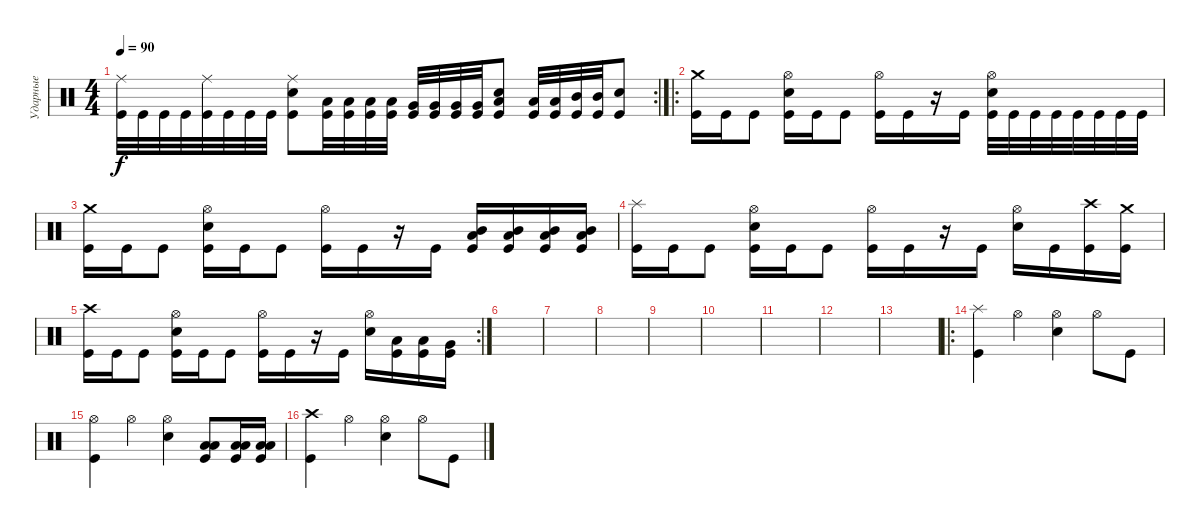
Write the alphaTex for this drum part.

\track ("Ударные" "Ударные") {instrument percussion}
\staff {score}
\articulation defaults
\rc 2
\ts (4 4)
\tempo 90
\clef neutral
\ks c
("Ride (middle)" "Kick (hit)").32{dy f} "Kick (hit)".32 "Kick (hit)".32 "Kick (hit)".32 ("Ride (middle)" "Kick (hit)").32 "Kick (hit)".32 "Kick (hit)".32 "Kick (hit)".32 ("Ride (middle)" "Snare (hit) 2" "Kick (hit)").8 ("Low Tom (hit)" "Kick (hit)").32 ("Low Tom (hit)" "Kick (hit)").32 ("Low Tom (hit)" "Kick (hit)").32 ("Low Tom (hit)" "Kick (hit)").32 ("Very Low Tom (hit)" "Kick (hit)").32 ("Very Low Tom (hit)" "Kick (hit)").32 ("Very Low Tom (hit)" "Kick (hit)").32 ("Very Low Tom (hit)" "Kick (hit)").32 ("Low Floor Tom (hit)" "Snare (hit) 2" "Kick (hit)").8 ("Low Tom (hit)" "Kick (hit)").32 ("Low Tom (hit)" "Kick (hit)").32 ("Mid Tom (hit)" "Kick (hit)").32 ("Mid Tom (hit)" "Kick (hit)").32 ("Snare (hit) 2" "Kick (hit)").8 |
\ro
("Crash medium (hit)" "Kick (hit)").16 "Kick (hit)".16 "Kick (hit)".8 ("Hi-Hat (open)" "Snare (hit) 2" "Kick (hit)").16 "Kick (hit)".16 "Kick (hit)".8 ("Hi-Hat (open)" "Kick (hit)").16 "Kick (hit)".16 r.16 "Kick (hit)".16 ("Hi-Hat (open)" "Snare (hit) 2" "Kick (hit)").32 "Kick (hit)".32 "Kick (hit)".32 "Kick (hit)".32 "Kick (hit)".32 "Kick (hit)".32 "Kick (hit)".32 "Kick (hit)".32 |
("Crash medium (hit)" "Kick (hit)").16 "Kick (hit)".16 "Kick (hit)".8 ("Hi-Hat (open)" "Snare (hit) 2" "Kick (hit)").16 "Kick (hit)".16 "Kick (hit)".8 ("Hi-Hat (open)" "Kick (hit)").16 "Kick (hit)".16 r.16 "Kick (hit)".16 ("Mid Tom (hit)" "Low Floor Tom (hit)" "Kick (hit)").16 ("Mid Tom (hit)" "Low Floor Tom (hit)" "Kick (hit)").16 ("Mid Tom (hit)" "Low Floor Tom (hit)" "Kick (hit)").16 ("Mid Tom (hit)" "Low Floor Tom (hit)" "Kick (hit)").16 |
("Splash (hit)" "Kick (hit)").16 "Kick (hit)".16 "Kick (hit)".8 ("Hi-Hat (open)" "Snare (hit) 2" "Kick (hit)").16 "Kick (hit)".16 "Kick (hit)".8 ("Hi-Hat (open)" "Kick (hit)").16 "Kick (hit)".16 r.16 "Kick (hit)".16 ("Hi-Hat (open)" "Snare (hit) 2").16 "Kick (hit)".16 ("Crash high (hit)" "Kick (hit)").16 ("Crash medium (hit)" "Kick (hit)").16 |
\rc 2
("Crash high (hit)" "Kick (hit)").16 "Kick (hit)".16 "Kick (hit)".8 ("Hi-Hat (open)" "Snare (hit) 2" "Kick (hit)").16 "Kick (hit)".16 "Kick (hit)".8 ("Hi-Hat (open)" "Kick (hit)").16 "Kick (hit)".16 r.16 "Kick (hit)".16 ("Hi-Hat (open)" "Snare (hit) 2").16 ("Low Tom (hit)" "Kick (hit)").16 ("Low Tom (hit)" "Kick (hit)").16 ("Very Low Tom (hit)" "Kick (hit)").16 |
|
|
|
|
|
|
|
|
\ro
("Splash (hit)" "Kick (hit)").4 "Hi-Hat (open)".4 ("Hi-Hat (open)" "Snare (hit) 2").4 "Hi-Hat (open)".8 "Kick (hit)".8 |
("Hi-Hat (open)" "Kick (hit)").4 "Hi-Hat (open)".4 ("Hi-Hat (open)" "Snare (hit) 2").4 ("Low Tom (hit)" "Low Floor Tom (hit)" "Kick (hit)").8 ("Low Tom (hit)" "Low Floor Tom (hit)" "Kick (hit)").16 ("Low Tom (hit)" "Low Floor Tom (hit)" "Kick (hit)").16 |
("Crash high (hit)" "Kick (hit)").4 "Hi-Hat (open)".4 ("Hi-Hat (open)" "Snare (hit) 2").4 "Hi-Hat (open)".8 "Kick (hit)".8
